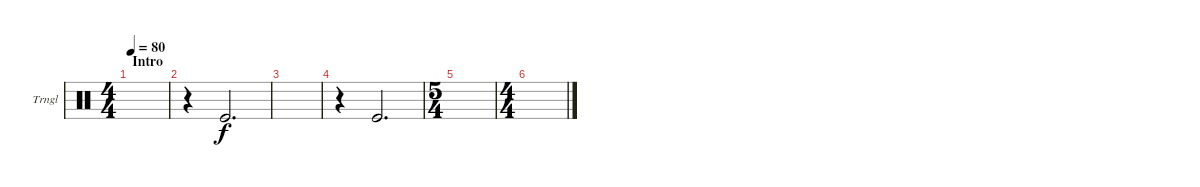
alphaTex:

\defaultSystemsLayout 4
\bracketExtendMode groupsimilarinstruments
\firstSystemTrackNameOrientation horizontal
\otherSystemsTrackNameOrientation horizontal
\track ("Triangle" "Trngl") {instrument percussion}
\staff {score}
\articulation defaults
\ts (4 4)
\section ("" "Intro")
\tempo 80
\clef neutral
\scale
0.474178
\ks c
|
\scale
0.262911 r.4 "Kick (hit)".2{d} |
\scale
0.262911 |
\scale
0.333333 r.4 "Kick (hit)".2{d} |
\ts (5 4)
\scale
0.333333 |
\ts (4 4)
\scale
0.333333 |
\scale
0.333333 |
\scale
0.333333 |
\scale
0.333333 |
\scale
0.333333 |
\scale
0.333333 |
\scale
0.333333 |
\scale
0.333333 |
\scale
0.333333 |
\scale
0.333333 |
\scale
0.333333
